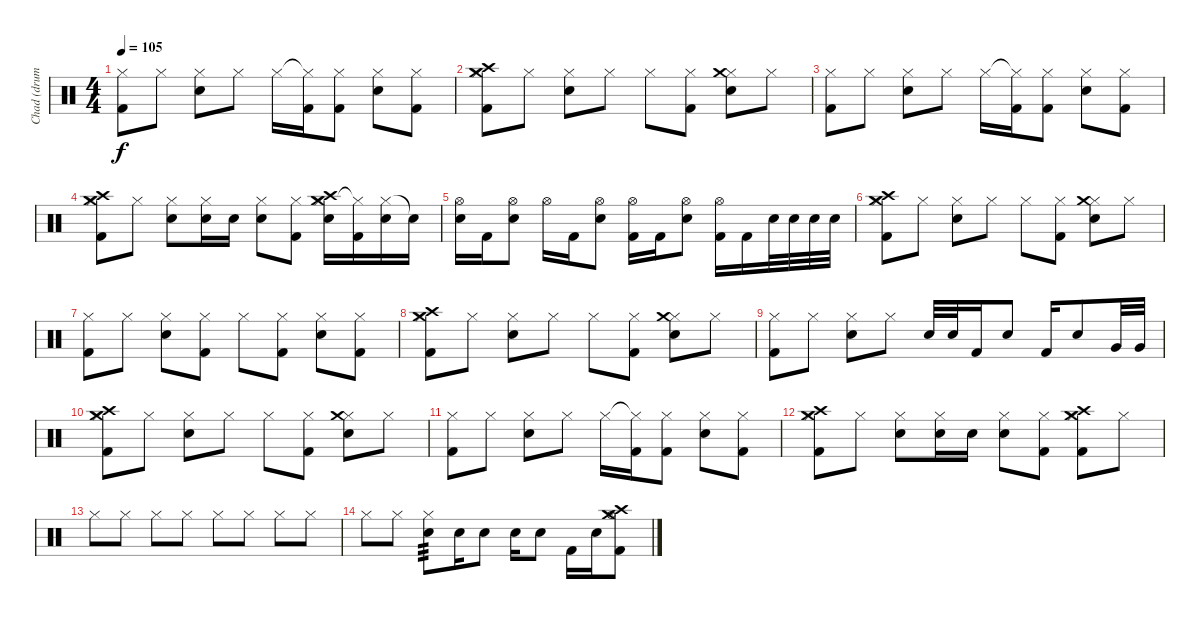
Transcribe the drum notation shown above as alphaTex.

\track ("Chad (drums)" "Chad (drum") {instrument percussion}
\staff {score}
\articulation defaults
\ts (4 4)
\tempo 105
\clef neutral
\ks c
("Hi-Hat (closed)" "Kick (hit) 2").8{dy f} "Hi-Hat (closed)".8 ("Hi-Hat (closed)" "Electric Snare (hit)").8 "Hi-Hat (closed)".8 "Hi-Hat (closed)".16 ("Hi-Hat (closed)"{t} "Kick (hit) 2").16 ("Hi-Hat (closed)" "Kick (hit) 2").8 ("Hi-Hat (closed)" "Electric Snare (hit)").8 ("Hi-Hat (closed)" "Kick (hit) 2").8 |
("Hi-Hat (closed)" "Kick (hit) 2" "Crash high (hit)" "Crash medium (hit)").8 "Hi-Hat (closed)".8 ("Hi-Hat (closed)" "Electric Snare (hit)").8 "Hi-Hat (closed)".8 "Hi-Hat (closed)".8 ("Hi-Hat (closed)" "Kick (hit) 2").8 ("Hi-Hat (closed)" "Electric Snare (hit)" "Crash medium (hit)").8 "Hi-Hat (closed)".8 |
("Hi-Hat (closed)" "Kick (hit) 2").8 "Hi-Hat (closed)".8 ("Hi-Hat (closed)" "Electric Snare (hit)").8 "Hi-Hat (closed)".8 "Hi-Hat (closed)".16 ("Hi-Hat (closed)"{t} "Kick (hit) 2").16 ("Hi-Hat (closed)" "Kick (hit) 2").8 ("Hi-Hat (closed)" "Electric Snare (hit)").8 ("Hi-Hat (closed)" "Kick (hit) 2").8 |
("Hi-Hat (closed)" "Kick (hit) 2" "Crash high (hit)" "Crash medium (hit)").8 "Hi-Hat (closed)".8 ("Hi-Hat (closed)" "Electric Snare (hit)").8 ("Hi-Hat (closed)" "Electric Snare (hit)").16 "Electric Snare (hit)".16 ("Hi-Hat (closed)" "Electric Snare (hit)").8 ("Hi-Hat (closed)" "Kick (hit) 2").8 ("Hi-Hat (closed)" "Electric Snare (hit)" "Crash medium (hit)" "Crash high (hit)").16 ("Hi-Hat (closed)"{t} "Kick (hit) 2").16 ("Hi-Hat (closed)" "Electric Snare (hit)").16 "Snare (hit)"{t}.16 |
("Hi-Hat (open)" "Electric Snare (hit)").16 "Kick (hit) 2".16 ("Hi-Hat (open)" "Electric Snare (hit)").8 "Hi-Hat (open)".16 "Kick (hit) 2".16 ("Hi-Hat (open)" "Electric Snare (hit)").8 ("Hi-Hat (open)" "Kick (hit) 2").16 "Kick (hit) 2".16 ("Hi-Hat (open)" "Electric Snare (hit)").8 ("Hi-Hat (open)" "Kick (hit) 2").16 "Kick (hit) 2".16 "Electric Snare (hit)".32 "Electric Snare (hit)".32 "Electric Snare (hit)".32 "Electric Snare (hit)".32 |
("Hi-Hat (closed)" "Kick (hit) 2" "Crash high (hit)" "Crash medium (hit)").8 "Hi-Hat (closed)".8 ("Hi-Hat (closed)" "Electric Snare (hit)").8 "Hi-Hat (closed)".8 "Hi-Hat (closed)".8 ("Hi-Hat (closed)" "Kick (hit) 2").8 ("Hi-Hat (closed)" "Electric Snare (hit)" "Crash medium (hit)").8 "Hi-Hat (closed)".8 |
("Hi-Hat (closed)" "Kick (hit) 2").8 "Hi-Hat (closed)".8 ("Hi-Hat (closed)" "Electric Snare (hit)").8 ("Hi-Hat (closed)" "Kick (hit) 2").8 "Hi-Hat (closed)".8 ("Hi-Hat (closed)" "Kick (hit) 2").8 ("Hi-Hat (closed)" "Electric Snare (hit)").8 ("Hi-Hat (closed)" "Kick (hit) 2").8 |
("Hi-Hat (closed)" "Kick (hit) 2" "Crash high (hit)" "Crash medium (hit)").8 "Hi-Hat (closed)".8 ("Hi-Hat (closed)" "Electric Snare (hit)").8 "Hi-Hat (closed)".8 "Hi-Hat (closed)".8 ("Hi-Hat (closed)" "Kick (hit) 2").8 ("Hi-Hat (closed)" "Electric Snare (hit)" "Crash medium (hit)").8 "Hi-Hat (closed)".8 |
("Hi-Hat (closed)" "Kick (hit) 2").8 "Hi-Hat (closed)".8 ("Hi-Hat (closed)" "Electric Snare (hit)").8 "Hi-Hat (closed)".8 "Electric Snare (hit)".32 "Electric Snare (hit)".32 "Kick (hit) 2".16 "Electric Snare (hit)".8 "Kick (hit) 2".16 "Electric Snare (hit)".8 "Very Low Tom (hit)".32 "Very Low Tom (hit)".32 |
("Hi-Hat (closed)" "Kick (hit) 2" "Crash high (hit)" "Crash medium (hit)").8 "Hi-Hat (closed)".8 ("Hi-Hat (closed)" "Electric Snare (hit)").8 "Hi-Hat (closed)".8 "Hi-Hat (closed)".8 ("Hi-Hat (closed)" "Kick (hit) 2").8 ("Hi-Hat (closed)" "Electric Snare (hit)" "Crash medium (hit)").8 "Hi-Hat (closed)".8 |
("Hi-Hat (closed)" "Kick (hit) 2").8 "Hi-Hat (closed)".8 ("Hi-Hat (closed)" "Electric Snare (hit)").8 "Hi-Hat (closed)".8 "Hi-Hat (closed)".16 ("Hi-Hat (closed)"{t} "Kick (hit) 2").16 ("Hi-Hat (closed)" "Kick (hit) 2").8 ("Hi-Hat (closed)" "Electric Snare (hit)").8 ("Hi-Hat (closed)" "Kick (hit) 2").8 |
("Hi-Hat (closed)" "Kick (hit) 2" "Crash high (hit)" "Crash medium (hit)").8 "Hi-Hat (closed)".8 ("Hi-Hat (closed)" "Electric Snare (hit)").8 ("Hi-Hat (closed)" "Electric Snare (hit)").16 "Electric Snare (hit)".16 ("Hi-Hat (closed)" "Electric Snare (hit)").8 ("Hi-Hat (closed)" "Kick (hit) 2").8 ("Hi-Hat (closed)" "Kick (hit) 2" "Crash medium (hit)" "Crash high (hit)").8 "Hi-Hat (closed)".8 |
"Hi-Hat (closed)".8 "Hi-Hat (closed)".8 "Hi-Hat (closed)".8 "Hi-Hat (closed)".8 "Hi-Hat (closed)".8 "Hi-Hat (closed)".8 "Hi-Hat (closed)".8 "Hi-Hat (closed)".8 |
"Hi-Hat (closed)".8 "Hi-Hat (closed)".8 ("Hi-Hat (closed)" "Electric Snare (hit)").8{tp 3} "Electric Snare (hit)".16 "Electric Snare (hit)".8 "Electric Snare (hit)".16 "Electric Snare (hit)".8 "Kick (hit) 2".16 "Electric Snare (hit)".16 ("Hi-Hat (open)" "Kick (hit) 2" "Crash high (hit)" "Crash medium (hit)").8
